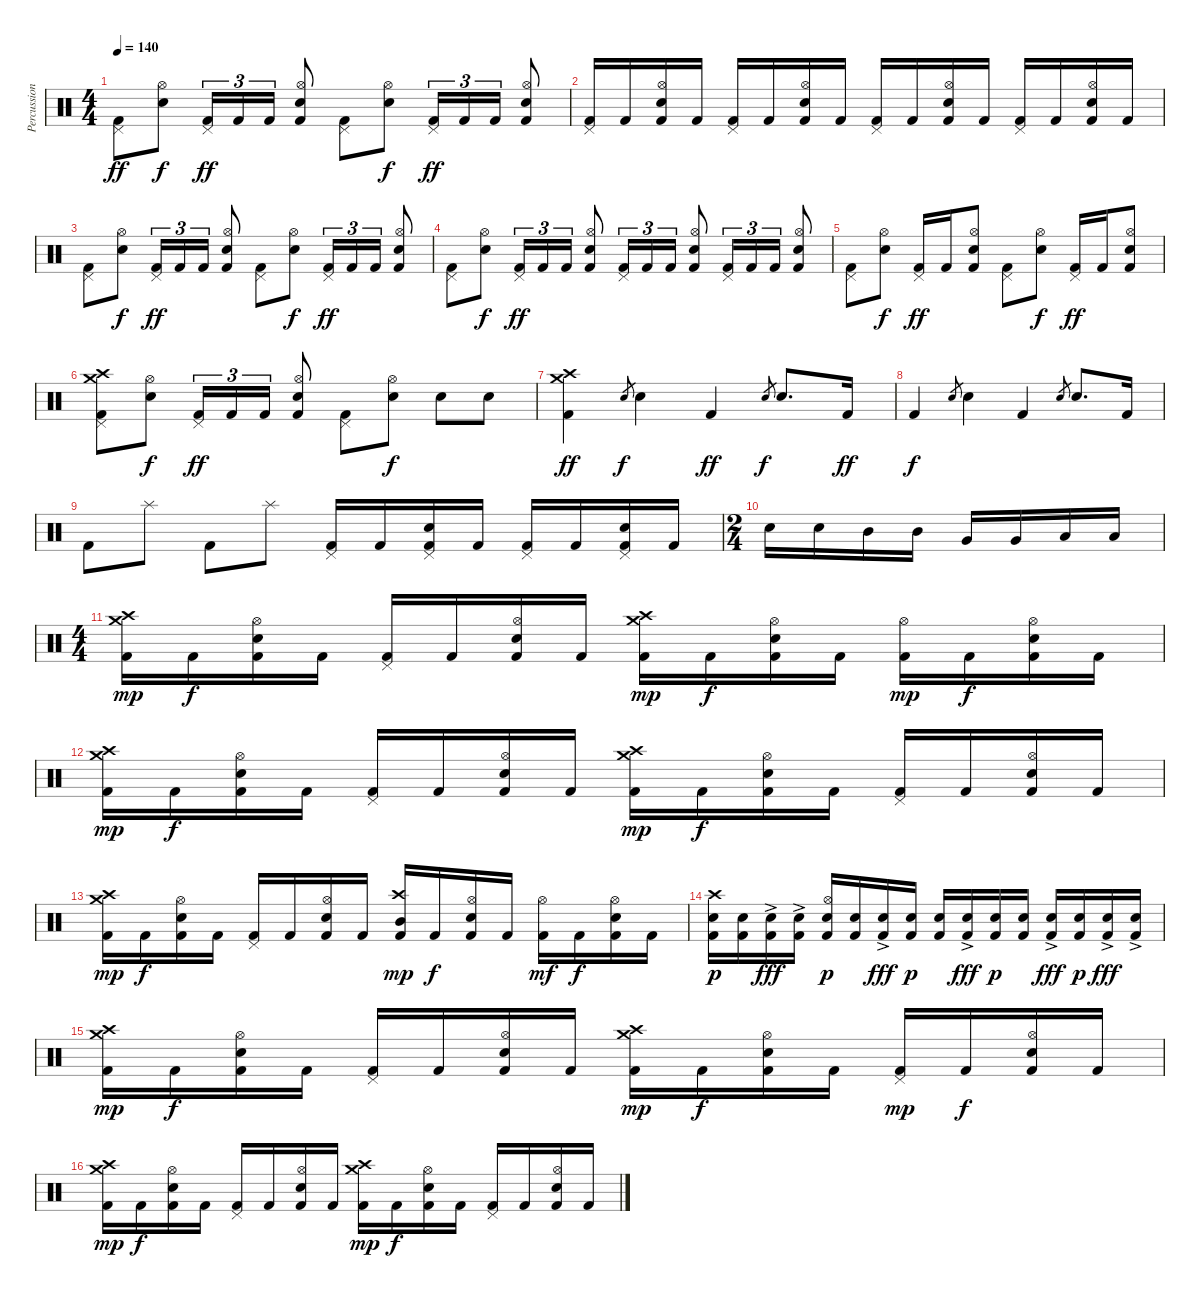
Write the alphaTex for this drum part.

\track ("Percussion" "Percussion") {instrument percussion}
\staff {score}
\articulation defaults
\ts (4 4)
\tempo 140
\clef neutral
\ks c
("Pedal Hi-Hat (hit)" "Kick (hit) 2").8{dy ff} ("Hi-Hat (open)" "Electric Snare (hit)").8{dy f} ("Pedal Hi-Hat (hit)" "Kick (hit) 2").16{tu (3 2) dy ff} "Kick (hit) 2".16{tu (3 2)} "Kick (hit) 2".16{tu (3 2)} ("Hi-Hat (open)" "Electric Snare (hit)" "Kick (hit) 2").8 ("Pedal Hi-Hat (hit)" "Kick (hit) 2").8 ("Hi-Hat (open)" "Electric Snare (hit)").8{dy f} ("Pedal Hi-Hat (hit)" "Kick (hit) 2").16{tu (3 2) dy ff} "Kick (hit) 2".16{tu (3 2)} "Kick (hit) 2".16{tu (3 2)} ("Hi-Hat (open)" "Electric Snare (hit)" "Kick (hit) 2").8 |
("Pedal Hi-Hat (hit)" "Kick (hit) 2").16 "Kick (hit) 2".16 ("Hi-Hat (open)" "Electric Snare (hit)" "Kick (hit) 2").16 "Kick (hit) 2".16 ("Pedal Hi-Hat (hit)" "Kick (hit) 2").16 "Kick (hit) 2".16 ("Hi-Hat (open)" "Electric Snare (hit)" "Kick (hit) 2").16 "Kick (hit) 2".16 ("Pedal Hi-Hat (hit)" "Kick (hit) 2").16 "Kick (hit) 2".16 ("Hi-Hat (open)" "Electric Snare (hit)" "Kick (hit) 2").16 "Kick (hit) 2".16 ("Pedal Hi-Hat (hit)" "Kick (hit) 2").16 "Kick (hit) 2".16 ("Hi-Hat (open)" "Electric Snare (hit)" "Kick (hit) 2").16 "Kick (hit) 2".16 |
("Pedal Hi-Hat (hit)" "Kick (hit) 2").8 ("Hi-Hat (open)" "Electric Snare (hit)").8{dy f} ("Pedal Hi-Hat (hit)" "Kick (hit) 2").16{tu (3 2) dy ff} "Kick (hit) 2".16{tu (3 2)} "Kick (hit) 2".16{tu (3 2)} ("Hi-Hat (open)" "Electric Snare (hit)" "Kick (hit) 2").8 ("Pedal Hi-Hat (hit)" "Kick (hit) 2").8 ("Hi-Hat (open)" "Electric Snare (hit)").8{dy f} ("Pedal Hi-Hat (hit)" "Kick (hit) 2").16{tu (3 2) dy ff} "Kick (hit) 2".16{tu (3 2)} "Kick (hit) 2".16{tu (3 2)} ("Hi-Hat (open)" "Electric Snare (hit)" "Kick (hit) 2").8 |
("Pedal Hi-Hat (hit)" "Kick (hit) 2").8 ("Hi-Hat (open)" "Electric Snare (hit)").8{dy f} ("Pedal Hi-Hat (hit)" "Kick (hit) 2").16{tu (3 2) dy ff} "Kick (hit) 2".16{tu (3 2)} "Kick (hit) 2".16{tu (3 2)} ("Hi-Hat (open)" "Electric Snare (hit)" "Kick (hit) 2").8 ("Pedal Hi-Hat (hit)" "Kick (hit) 2").16{tu (3 2)} "Kick (hit) 2".16{tu (3 2)} "Kick (hit) 2".16{tu (3 2)} ("Hi-Hat (open)" "Electric Snare (hit)" "Kick (hit) 2").8 ("Pedal Hi-Hat (hit)" "Kick (hit) 2").16{tu (3 2)} "Kick (hit) 2".16{tu (3 2)} "Kick (hit) 2".16{tu (3 2)} ("Hi-Hat (open)" "Electric Snare (hit)" "Kick (hit) 2").8 |
("Pedal Hi-Hat (hit)" "Kick (hit) 2").8 ("Hi-Hat (open)" "Electric Snare (hit)").8{dy f} ("Pedal Hi-Hat (hit)" "Kick (hit) 2").16{dy ff} "Kick (hit) 2".16 ("Hi-Hat (open)" "Electric Snare (hit)" "Kick (hit) 2").8 ("Pedal Hi-Hat (hit)" "Kick (hit) 2").8 ("Hi-Hat (open)" "Electric Snare (hit)").8{dy f} ("Pedal Hi-Hat (hit)" "Kick (hit) 2").16{dy ff} "Kick (hit) 2".16 ("Hi-Hat (open)" "Electric Snare (hit)" "Kick (hit) 2").8 |
("Crash medium (hit)" "Crash high (hit)" "Pedal Hi-Hat (hit)" "Kick (hit) 2").8 ("Hi-Hat (open)" "Electric Snare (hit)").8{dy f} ("Pedal Hi-Hat (hit)" "Kick (hit) 2").16{tu (3 2) dy ff} "Kick (hit) 2".16{tu (3 2)} "Kick (hit) 2".16{tu (3 2)} ("Hi-Hat (open)" "Electric Snare (hit)" "Kick (hit) 2").8 ("Pedal Hi-Hat (hit)" "Kick (hit) 2").8 ("Hi-Hat (open)" "Electric Snare (hit)").8{dy f} "Electric Snare (hit)".8 "Electric Snare (hit)".8 |
("Crash medium (hit)" "Crash high (hit)" "Kick (hit) 2").4{dy ff} "Electric Snare (hit)".8{gr dy f} "Electric Snare (hit)".4 "Kick (hit) 2".4{dy ff} "Electric Snare (hit)".8{gr dy f} "Electric Snare (hit)".8{d} "Kick (hit) 2".16{dy ff} |
"Kick (hit) 2".4{dy f} "Electric Snare (hit)".8{gr} "Electric Snare (hit)".4 "Kick (hit) 2".4 "Electric Snare (hit)".8{gr} "Electric Snare (hit)".8{d} "Kick (hit) 2".16 |
"Kick (hit) 2".8 "Splash (hit)".8 "Kick (hit) 2".8 "Splash (hit)".8 ("Pedal Hi-Hat (hit)" "Kick (hit) 2").16 "Kick (hit) 2".16 ("Pedal Hi-Hat (hit)" "Electric Snare (hit)" "Kick (hit) 2").16 "Kick (hit) 2".16 ("Pedal Hi-Hat (hit)" "Kick (hit) 2").16 "Kick (hit) 2".16 ("Pedal Hi-Hat (hit)" "Electric Snare (hit)" "Kick (hit) 2").16 "Kick (hit) 2".16 |
\ts (2 4)
"Electric Snare (hit)".16 "Electric Snare (hit)".16 "Mid Tom (hit)".16 "Mid Tom (hit)".16 "Very Low Tom (hit)".16 "Very Low Tom (hit)".16 "Low Floor Tom (hit)".16 "Low Floor Tom (hit)".16 |
\ts (4 4)
("Crash medium (hit)" "Crash high (hit)" "Kick (hit) 2").16{dy mp} "Kick (hit) 2".16{dy f} ("Hi-Hat (open)" "Electric Snare (hit)" "Kick (hit) 2").16 "Kick (hit) 2".16 ("Pedal Hi-Hat (hit)" "Kick (hit) 2").16 "Kick (hit) 2".16 ("Hi-Hat (open)" "Electric Snare (hit)" "Kick (hit) 2").16 "Kick (hit) 2".16 ("Crash high (hit)" "Crash medium (hit)" "Kick (hit) 2").16{dy mp} "Kick (hit) 2".16{dy f} ("Hi-Hat (open)" "Electric Snare (hit)" "Kick (hit) 2").16 "Kick (hit) 2".16 ("Hi-Hat (open)" "Kick (hit) 2").16{dy mp} "Kick (hit) 2".16{dy f} ("Hi-Hat (open)" "Electric Snare (hit)" "Kick (hit) 2").16 "Kick (hit) 2".16 |
("Crash medium (hit)" "Crash high (hit)" "Kick (hit) 2").16{dy mp} "Kick (hit) 2".16{dy f} ("Hi-Hat (open)" "Electric Snare (hit)" "Kick (hit) 2").16 "Kick (hit) 2".16 ("Pedal Hi-Hat (hit)" "Kick (hit) 2").16 "Kick (hit) 2".16 ("Hi-Hat (open)" "Electric Snare (hit)" "Kick (hit) 2").16 "Kick (hit) 2".16 ("Crash high (hit)" "Crash medium (hit)" "Kick (hit) 2").16{dy mp} "Kick (hit) 2".16{dy f} ("Hi-Hat (open)" "Electric Snare (hit)" "Kick (hit) 2").16 "Kick (hit) 2".16 ("Pedal Hi-Hat (hit)" "Kick (hit) 2").16 "Kick (hit) 2".16 ("Hi-Hat (open)" "Electric Snare (hit)" "Kick (hit) 2").16 "Kick (hit) 2".16 |
("Crash medium (hit)" "Crash high (hit)" "Kick (hit) 2").16{dy mp} "Kick (hit) 2".16{dy f} ("Hi-Hat (open)" "Electric Snare (hit)" "Kick (hit) 2").16 "Kick (hit) 2".16 ("Pedal Hi-Hat (hit)" "Kick (hit) 2").16 "Kick (hit) 2".16 ("Hi-Hat (open)" "Electric Snare (hit)" "Kick (hit) 2").16 "Kick (hit) 2".16 ("Crash high (hit)" "Mid Tom (hit)" "Kick (hit) 2").16{dy mp} "Kick (hit) 2".16{dy f} ("Hi-Hat (open)" "Electric Snare (hit)" "Kick (hit) 2").16 "Kick (hit) 2".16 ("Hi-Hat (open)" "Kick (hit) 2").16{dy mf} "Kick (hit) 2".16{dy f} ("Hi-Hat (open)" "Electric Snare (hit)" "Kick (hit) 2").16 "Kick (hit) 2".16 |
("Crash high (hit)" "Electric Snare (hit)" "Kick (hit) 2").16{dy p} ("Electric Snare (hit)" "Kick (hit) 2").16 ("Electric Snare (hit)"{ac} "Kick (hit) 2").16{dy fff} ("Electric Snare (hit)"{ac} "Kick (hit) 2").16 ("Hi-Hat (open)" "Electric Snare (hit)" "Kick (hit) 2").16{dy p} ("Electric Snare (hit)" "Kick (hit) 2").16 ("Electric Snare (hit)"{ac} "Kick (hit) 2").16{dy fff} ("Electric Snare (hit)" "Kick (hit) 2").16{dy p} ("Electric Snare (hit)" "Kick (hit) 2").16 ("Electric Snare (hit)"{ac} "Kick (hit) 2").16{dy fff} ("Electric Snare (hit)" "Kick (hit) 2").16{dy p} ("Electric Snare (hit)" "Kick (hit) 2").16 ("Electric Snare (hit)"{ac} "Kick (hit) 2").16{dy fff} ("Electric Snare (hit)" "Kick (hit) 2").16{dy p} ("Electric Snare (hit)"{ac} "Kick (hit) 2").16{dy fff} ("Electric Snare (hit)"{ac} "Kick (hit) 2").16 |
("Crash medium (hit)" "Crash high (hit)" "Kick (hit) 2").16{dy mp} "Kick (hit) 2".16{dy f} ("Hi-Hat (open)" "Electric Snare (hit)" "Kick (hit) 2").16 "Kick (hit) 2".16 ("Pedal Hi-Hat (hit)" "Kick (hit) 2").16 "Kick (hit) 2".16 ("Hi-Hat (open)" "Electric Snare (hit)" "Kick (hit) 2").16 "Kick (hit) 2".16 ("Crash high (hit)" "Crash medium (hit)" "Kick (hit) 2").16{dy mp} "Kick (hit) 2".16{dy f} ("Hi-Hat (open)" "Electric Snare (hit)" "Kick (hit) 2").16 "Kick (hit) 2".16 ("Pedal Hi-Hat (hit)" "Kick (hit) 2").16{dy mp} "Kick (hit) 2".16{dy f} ("Hi-Hat (open)" "Electric Snare (hit)" "Kick (hit) 2").16 "Kick (hit) 2".16 |
("Crash medium (hit)" "Crash high (hit)" "Kick (hit) 2").16{dy mp} "Kick (hit) 2".16{dy f} ("Hi-Hat (open)" "Electric Snare (hit)" "Kick (hit) 2").16 "Kick (hit) 2".16 ("Pedal Hi-Hat (hit)" "Kick (hit) 2").16 "Kick (hit) 2".16 ("Hi-Hat (open)" "Electric Snare (hit)" "Kick (hit) 2").16 "Kick (hit) 2".16 ("Crash high (hit)" "Crash medium (hit)" "Kick (hit) 2").16{dy mp} "Kick (hit) 2".16{dy f} ("Hi-Hat (open)" "Electric Snare (hit)" "Kick (hit) 2").16 "Kick (hit) 2".16 ("Pedal Hi-Hat (hit)" "Kick (hit) 2").16 "Kick (hit) 2".16 ("Hi-Hat (open)" "Electric Snare (hit)" "Kick (hit) 2").16 "Kick (hit) 2".16
